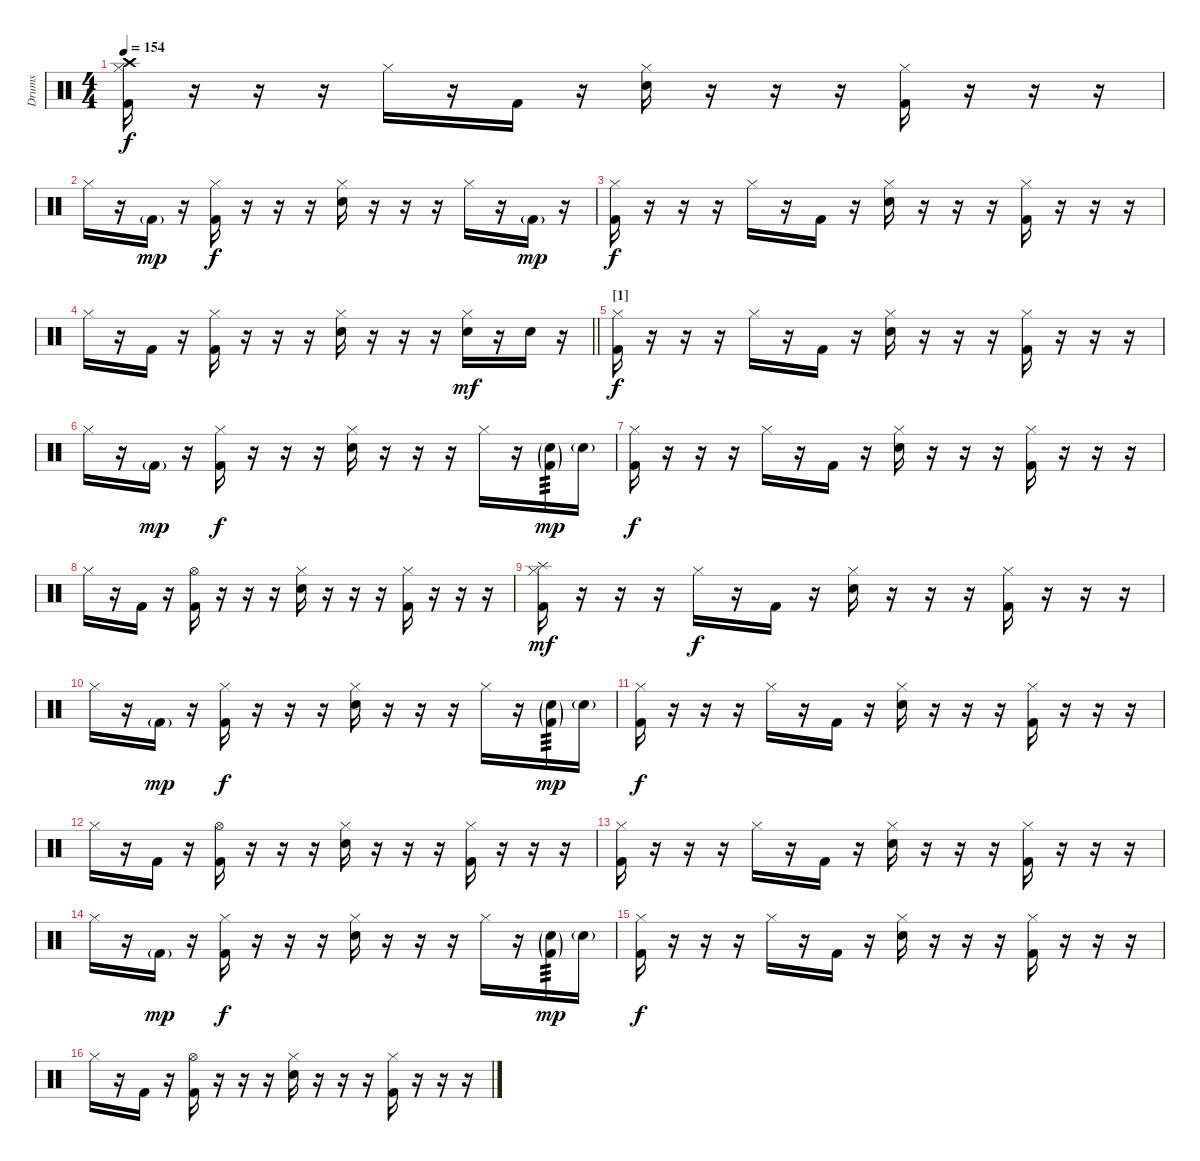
\track ("Drums" "Drums") {instrument percussion}
\staff {score}
\articulation defaults
\ts (4 4)
\tempo 154
\clef neutral
\ks c
("Crash high (hit)" "Hi-Hat (closed)" "Kick (hit) 2").16{dy f} r.16 r.16 r.16 "Hi-Hat (closed)".16 r.16 "Kick (hit) 2".16 r.16 ("Hi-Hat (closed)" "Electric Snare (hit)").16 r.16 r.16 r.16 ("Hi-Hat (closed)" "Kick (hit) 2").16 r.16 r.16 r.16 |
"Hi-Hat (closed)".16 r.16 "Kick (hit) 2"{g}.16{dy mp} r.16 ("Hi-Hat (closed)" "Kick (hit) 2").16{dy f} r.16 r.16 r.16 ("Hi-Hat (closed)" "Electric Snare (hit)").16 r.16 r.16 r.16 "Hi-Hat (closed)".16 r.16 "Kick (hit) 2"{g}.16{dy mp} r.16 |
("Hi-Hat (closed)" "Kick (hit) 2").16{dy f} r.16 r.16 r.16 "Hi-Hat (closed)".16 r.16 "Kick (hit) 2".16 r.16 ("Hi-Hat (closed)" "Electric Snare (hit)").16 r.16 r.16 r.16 ("Hi-Hat (closed)" "Kick (hit) 2").16 r.16 r.16 r.16 |
\barLineRight lightlight "Hi-Hat (closed)".16
r.16 "Kick (hit) 2".16 r.16 ("Hi-Hat (closed)" "Kick (hit) 2").16 r.16 r.16 r.16 ("Hi-Hat (closed)" "Electric Snare (hit)").16 r.16 r.16 r.16 ("Hi-Hat (closed)" "Electric Snare (hit)").16{dy mf} r.16 "Electric Snare (hit)".16 r.16 |
\section ("" "[1]")
("Hi-Hat (closed)" "Kick (hit) 2").16{dy f} r.16 r.16 r.16 "Hi-Hat (closed)".16 r.16 "Kick (hit) 2".16 r.16 ("Hi-Hat (closed)" "Electric Snare (hit)").16 r.16 r.16 r.16 ("Hi-Hat (closed)" "Kick (hit) 2").16 r.16 r.16 r.16 |
"Hi-Hat (closed)".16 r.16 "Kick (hit) 2"{g}.16{dy mp} r.16 ("Hi-Hat (closed)" "Kick (hit) 2").16{dy f} r.16 r.16 r.16 ("Hi-Hat (closed)" "Electric Snare (hit)").16 r.16 r.16 r.16 "Hi-Hat (closed)".16 r.16 ("Electric Snare (hit)"{g} "Kick (hit) 2"{g}).16{tp 3 dy mp} "Electric Snare (hit)"{g}.16 |
("Hi-Hat (closed)" "Kick (hit) 2").16{dy f} r.16 r.16 r.16 "Hi-Hat (closed)".16 r.16 "Kick (hit) 2".16 r.16 ("Hi-Hat (closed)" "Electric Snare (hit)").16 r.16 r.16 r.16 ("Hi-Hat (closed)" "Kick (hit) 2").16 r.16 r.16 r.16 |
"Hi-Hat (closed)".16 r.16 "Kick (hit) 2".16 r.16 ("Hi-Hat (open)" "Kick (hit) 2").16 r.16 r.16 r.16 ("Hi-Hat (closed)" "Electric Snare (hit)").16 r.16 r.16 r.16 ("Hi-Hat (closed)" "Kick (hit) 2").16 r.16 r.16 r.16 |
("Splash (hit)" "Hi-Hat (closed)" "Kick (hit) 2").16{dy mf} r.16 r.16 r.16 "Hi-Hat (closed)".16{dy f} r.16 "Kick (hit) 2".16 r.16 ("Hi-Hat (closed)" "Electric Snare (hit)").16 r.16 r.16 r.16 ("Hi-Hat (closed)" "Kick (hit) 2").16 r.16 r.16 r.16 |
"Hi-Hat (closed)".16 r.16 "Kick (hit) 2"{g}.16{dy mp} r.16 ("Hi-Hat (closed)" "Kick (hit) 2").16{dy f} r.16 r.16 r.16 ("Hi-Hat (closed)" "Electric Snare (hit)").16 r.16 r.16 r.16 "Hi-Hat (closed)".16 r.16 ("Electric Snare (hit)"{g} "Kick (hit) 2"{g}).16{tp 3 dy mp} "Electric Snare (hit)"{g}.16 |
("Hi-Hat (closed)" "Kick (hit) 2").16{dy f} r.16 r.16 r.16 "Hi-Hat (closed)".16 r.16 "Kick (hit) 2".16 r.16 ("Hi-Hat (closed)" "Electric Snare (hit)").16 r.16 r.16 r.16 ("Hi-Hat (closed)" "Kick (hit) 2").16 r.16 r.16 r.16 |
"Hi-Hat (closed)".16 r.16 "Kick (hit) 2".16 r.16 ("Hi-Hat (open)" "Kick (hit) 2").16 r.16 r.16 r.16 ("Hi-Hat (closed)" "Electric Snare (hit)").16 r.16 r.16 r.16 ("Hi-Hat (closed)" "Kick (hit) 2").16 r.16 r.16 r.16 |
("Hi-Hat (closed)" "Kick (hit) 2").16 r.16 r.16 r.16 "Hi-Hat (closed)".16 r.16 "Kick (hit) 2".16 r.16 ("Hi-Hat (closed)" "Electric Snare (hit)").16 r.16 r.16 r.16 ("Hi-Hat (closed)" "Kick (hit) 2").16 r.16 r.16 r.16 |
"Hi-Hat (closed)".16 r.16 "Kick (hit) 2"{g}.16{dy mp} r.16 ("Hi-Hat (closed)" "Kick (hit) 2").16{dy f} r.16 r.16 r.16 ("Hi-Hat (closed)" "Electric Snare (hit)").16 r.16 r.16 r.16 "Hi-Hat (closed)".16 r.16 ("Electric Snare (hit)"{g} "Kick (hit) 2"{g}).16{tp 3 dy mp} "Electric Snare (hit)"{g}.16 |
("Hi-Hat (closed)" "Kick (hit) 2").16{dy f} r.16 r.16 r.16 "Hi-Hat (closed)".16 r.16 "Kick (hit) 2".16 r.16 ("Hi-Hat (closed)" "Electric Snare (hit)").16 r.16 r.16 r.16 ("Hi-Hat (closed)" "Kick (hit) 2").16 r.16 r.16 r.16 |
"Hi-Hat (closed)".16 r.16 "Kick (hit) 2".16 r.16 ("Hi-Hat (open)" "Kick (hit) 2").16 r.16 r.16 r.16 ("Hi-Hat (closed)" "Electric Snare (hit)").16 r.16 r.16 r.16 ("Hi-Hat (closed)" "Kick (hit) 2").16 r.16 r.16 r.16
